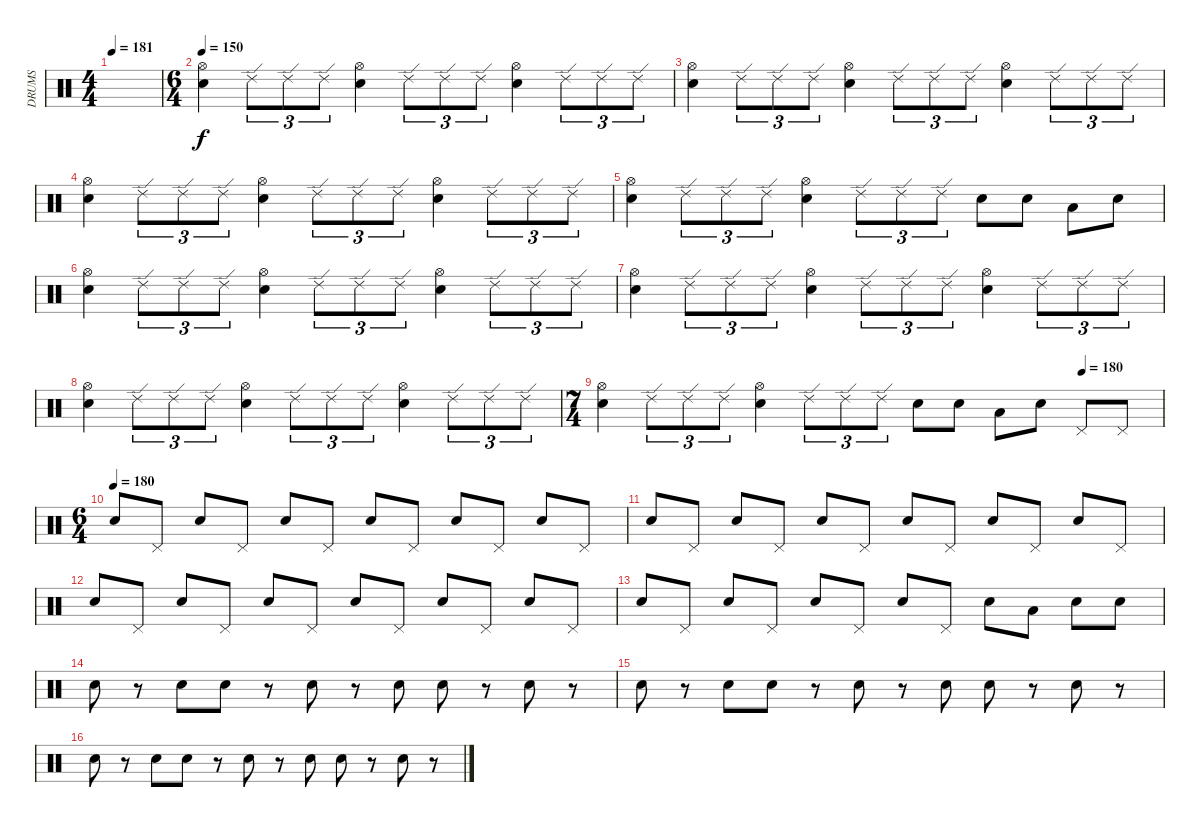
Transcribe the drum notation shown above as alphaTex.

\track ("DRUMS" "DRUMS") {instrument percussion}
\staff {score}
\articulation defaults
\ts (4 4)
\tempo 181
\clef neutral
\ks c
|
\ts (6 4)
\tempo 150
("Electric Snare (hit)" "Hi-Hat (open)").4 "Ride (edge) 2".8{tu (3 2)} "Ride (edge) 2".8{tu (3 2)} "Ride (edge) 2".8{tu (3 2)} ("Electric Snare (hit)" "Hi-Hat (open)").4 "Ride (edge) 2".8{tu (3 2)} "Ride (edge) 2".8{tu (3 2)} "Ride (edge) 2".8{tu (3 2)} ("Electric Snare (hit)" "Hi-Hat (open)").4 "Ride (edge) 2".8{tu (3 2)} "Ride (edge) 2".8{tu (3 2)} "Ride (edge) 2".8{tu (3 2)} |
("Electric Snare (hit)" "Hi-Hat (open)").4 "Ride (edge) 2".8{tu (3 2)} "Ride (edge) 2".8{tu (3 2)} "Ride (edge) 2".8{tu (3 2)} ("Electric Snare (hit)" "Hi-Hat (open)").4 "Ride (edge) 2".8{tu (3 2)} "Ride (edge) 2".8{tu (3 2)} "Ride (edge) 2".8{tu (3 2)} ("Electric Snare (hit)" "Hi-Hat (open)").4 "Ride (edge) 2".8{tu (3 2)} "Ride (edge) 2".8{tu (3 2)} "Ride (edge) 2".8{tu (3 2)} |
("Electric Snare (hit)" "Hi-Hat (open)").4 "Ride (edge) 2".8{tu (3 2)} "Ride (edge) 2".8{tu (3 2)} "Ride (edge) 2".8{tu (3 2)} ("Electric Snare (hit)" "Hi-Hat (open)").4 "Ride (edge) 2".8{tu (3 2)} "Ride (edge) 2".8{tu (3 2)} "Ride (edge) 2".8{tu (3 2)} ("Electric Snare (hit)" "Hi-Hat (open)").4 "Ride (edge) 2".8{tu (3 2)} "Ride (edge) 2".8{tu (3 2)} "Ride (edge) 2".8{tu (3 2)} |
("Electric Snare (hit)" "Hi-Hat (open)").4 "Ride (edge) 2".8{tu (3 2)} "Ride (edge) 2".8{tu (3 2)} "Ride (edge) 2".8{tu (3 2)} ("Electric Snare (hit)" "Hi-Hat (open)").4 "Ride (edge) 2".8{tu (3 2)} "Ride (edge) 2".8{tu (3 2)} "Ride (edge) 2".8{tu (3 2)} "Electric Snare (hit)".8 "Electric Snare (hit)".8 "Low Tom (hit)".8 "Electric Snare (hit)".8 |
("Electric Snare (hit)" "Hi-Hat (open)").4 "Ride (edge) 2".8{tu (3 2)} "Ride (edge) 2".8{tu (3 2)} "Ride (edge) 2".8{tu (3 2)} ("Electric Snare (hit)" "Hi-Hat (open)").4 "Ride (edge) 2".8{tu (3 2)} "Ride (edge) 2".8{tu (3 2)} "Ride (edge) 2".8{tu (3 2)} ("Electric Snare (hit)" "Hi-Hat (open)").4 "Ride (edge) 2".8{tu (3 2)} "Ride (edge) 2".8{tu (3 2)} "Ride (edge) 2".8{tu (3 2)} |
("Electric Snare (hit)" "Hi-Hat (open)").4 "Ride (edge) 2".8{tu (3 2)} "Ride (edge) 2".8{tu (3 2)} "Ride (edge) 2".8{tu (3 2)} ("Electric Snare (hit)" "Hi-Hat (open)").4 "Ride (edge) 2".8{tu (3 2)} "Ride (edge) 2".8{tu (3 2)} "Ride (edge) 2".8{tu (3 2)} ("Electric Snare (hit)" "Hi-Hat (open)").4 "Ride (edge) 2".8{tu (3 2)} "Ride (edge) 2".8{tu (3 2)} "Ride (edge) 2".8{tu (3 2)} |
("Electric Snare (hit)" "Hi-Hat (open)").4 "Ride (edge) 2".8{tu (3 2)} "Ride (edge) 2".8{tu (3 2)} "Ride (edge) 2".8{tu (3 2)} ("Electric Snare (hit)" "Hi-Hat (open)").4 "Ride (edge) 2".8{tu (3 2)} "Ride (edge) 2".8{tu (3 2)} "Ride (edge) 2".8{tu (3 2)} ("Electric Snare (hit)" "Hi-Hat (open)").4 "Ride (edge) 2".8{tu (3 2)} "Ride (edge) 2".8{tu (3 2)} "Ride (edge) 2".8{tu (3 2)} |
\ts (7 4)
\tempo (180 0.8571428571428571)
("Electric Snare (hit)" "Hi-Hat (open)").4 "Ride (edge) 2".8{tu (3 2)} "Ride (edge) 2".8{tu (3 2)} "Ride (edge) 2".8{tu (3 2)} ("Electric Snare (hit)" "Hi-Hat (open)").4 "Ride (edge) 2".8{tu (3 2)} "Ride (edge) 2".8{tu (3 2)} "Ride (edge) 2".8{tu (3 2)} "Electric Snare (hit)".8 "Electric Snare (hit)".8 "Low Tom (hit)".8 "Electric Snare (hit)".8 "Pedal Hi-Hat (hit)".8 "Pedal Hi-Hat (hit)".8 |
\ts (6 4)
\tempo (180)
"Electric Snare (hit)".8 "Pedal Hi-Hat (hit)".8 "Electric Snare (hit)".8 "Pedal Hi-Hat (hit)".8 "Electric Snare (hit)".8 "Pedal Hi-Hat (hit)".8 "Electric Snare (hit)".8 "Pedal Hi-Hat (hit)".8 "Electric Snare (hit)".8 "Pedal Hi-Hat (hit)".8 "Electric Snare (hit)".8 "Pedal Hi-Hat (hit)".8 |
"Electric Snare (hit)".8 "Pedal Hi-Hat (hit)".8 "Electric Snare (hit)".8 "Pedal Hi-Hat (hit)".8 "Electric Snare (hit)".8 "Pedal Hi-Hat (hit)".8 "Electric Snare (hit)".8 "Pedal Hi-Hat (hit)".8 "Electric Snare (hit)".8 "Pedal Hi-Hat (hit)".8 "Electric Snare (hit)".8 "Pedal Hi-Hat (hit)".8 |
"Electric Snare (hit)".8 "Pedal Hi-Hat (hit)".8 "Electric Snare (hit)".8 "Pedal Hi-Hat (hit)".8 "Electric Snare (hit)".8 "Pedal Hi-Hat (hit)".8 "Electric Snare (hit)".8 "Pedal Hi-Hat (hit)".8 "Electric Snare (hit)".8 "Pedal Hi-Hat (hit)".8 "Electric Snare (hit)".8 "Pedal Hi-Hat (hit)".8 |
"Electric Snare (hit)".8 "Pedal Hi-Hat (hit)".8 "Electric Snare (hit)".8 "Pedal Hi-Hat (hit)".8 "Electric Snare (hit)".8 "Pedal Hi-Hat (hit)".8 "Electric Snare (hit)".8 "Pedal Hi-Hat (hit)".8 "Electric Snare (hit)".8 "Low Tom (hit)".8 "Electric Snare (hit)".8 "Electric Snare (hit)".8 |
"Electric Snare (hit)".8 r.8 "Electric Snare (hit)".8 "Electric Snare (hit)".8 r.8 "Electric Snare (hit)".8 r.8 "Electric Snare (hit)".8 "Electric Snare (hit)".8 r.8 "Electric Snare (hit)".8 r.8 |
"Electric Snare (hit)".8 r.8 "Electric Snare (hit)".8 "Electric Snare (hit)".8 r.8 "Electric Snare (hit)".8 r.8 "Electric Snare (hit)".8 "Electric Snare (hit)".8 r.8 "Electric Snare (hit)".8 r.8 |
"Electric Snare (hit)".8 r.8 "Electric Snare (hit)".8 "Electric Snare (hit)".8 r.8 "Electric Snare (hit)".8 r.8 "Electric Snare (hit)".8 "Electric Snare (hit)".8 r.8 "Electric Snare (hit)".8 r.8
